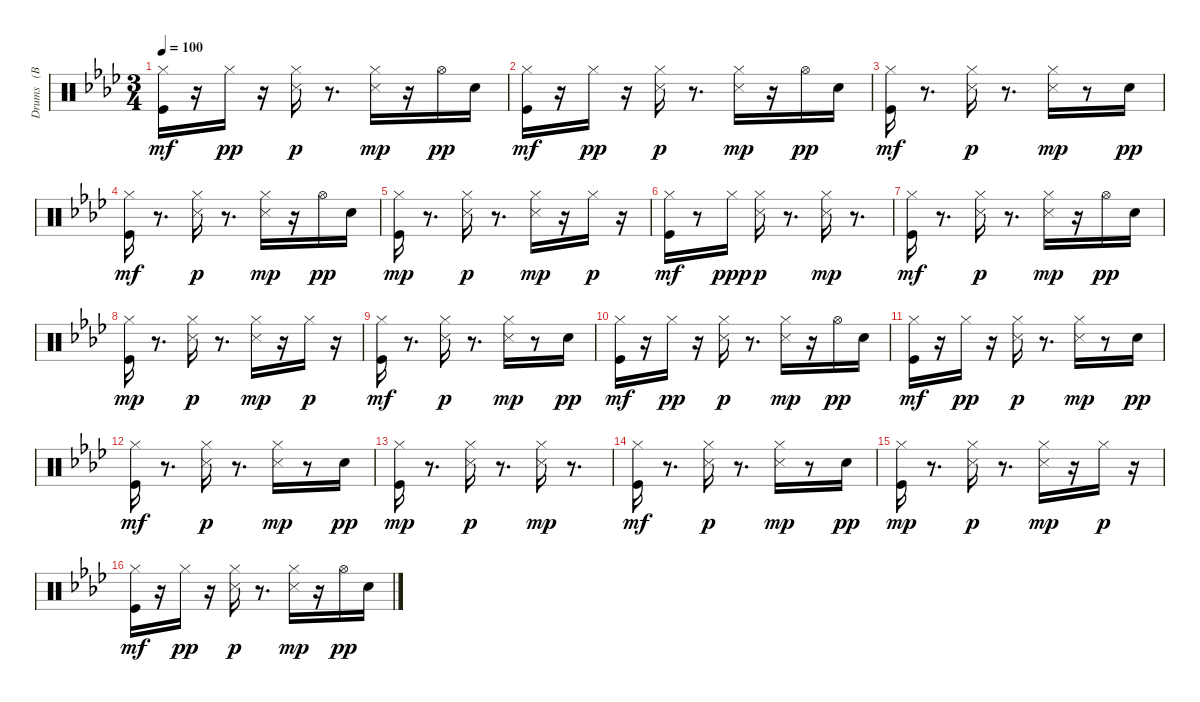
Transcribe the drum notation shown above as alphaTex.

\track ("Drums   (BB)" "Drums   (B") {instrument percussion}
\staff {score}
\articulation defaults
\ts (3 4)
\tempo 100
\clef neutral
\ks fminor
("Kick (hit)" "Hi-Hat (closed)").16{dy mf} r.16 "Hi-Hat (closed)".16{dy pp} r.16 ("Hi-Hat (closed)" "Snare (side stick) 3").16{dy p} r.8{d} ("Hi-Hat (closed)" "Snare (side stick) 3").16{dy mp} r.16 "Hi-Hat (open)".16{dy pp} "Snare (hit) 2".16 |
("Kick (hit)" "Hi-Hat (closed)").16{dy mf} r.16 "Hi-Hat (closed)".16{dy pp} r.16 ("Hi-Hat (closed)" "Snare (side stick) 3").16{dy p} r.8{d} ("Hi-Hat (closed)" "Snare (side stick) 3").16{dy mp} r.16 "Hi-Hat (open)".16{dy pp} "Snare (hit) 2".16 |
("Kick (hit)" "Hi-Hat (closed)").16{dy mf} r.8{d} ("Hi-Hat (closed)" "Snare (side stick) 3").16{dy p} r.8{d} ("Hi-Hat (closed)" "Snare (side stick) 3").16{dy mp} r.8 "Snare (hit) 2".16{dy pp} |
("Kick (hit)" "Hi-Hat (closed)").16{dy mf} r.8{d} ("Hi-Hat (closed)" "Snare (side stick) 3").16{dy p} r.8{d} ("Hi-Hat (closed)" "Snare (side stick) 3").16{dy mp} r.16 "Hi-Hat (open)".16{dy pp} "Snare (hit) 2".16 |
("Kick (hit)" "Hi-Hat (closed)").16{dy mp} r.8{d} ("Hi-Hat (closed)" "Snare (side stick) 3").16{dy p} r.8{d} ("Hi-Hat (closed)" "Snare (side stick) 3").16{dy mp} r.16 "Hi-Hat (closed)".16{dy p} r.16 |
("Kick (hit)" "Hi-Hat (closed)").16{dy mf} r.8 "Hi-Hat (closed)".16{dy ppp} ("Hi-Hat (closed)" "Snare (side stick) 3").16{dy p} r.8{d} ("Hi-Hat (closed)" "Snare (side stick) 3").16{dy mp} r.8{d} |
("Kick (hit)" "Hi-Hat (closed)").16{dy mf} r.8{d} ("Hi-Hat (closed)" "Snare (side stick) 3").16{dy p} r.8{d} ("Hi-Hat (closed)" "Snare (side stick) 3").16{dy mp} r.16 "Hi-Hat (open)".16{dy pp} "Snare (hit) 2".16 |
("Kick (hit)" "Hi-Hat (closed)").16{dy mp} r.8{d} ("Hi-Hat (closed)" "Snare (side stick) 3").16{dy p} r.8{d} ("Hi-Hat (closed)" "Snare (side stick) 3").16{dy mp} r.16 "Hi-Hat (closed)".16{dy p} r.16 |
("Kick (hit)" "Hi-Hat (closed)").16{dy mf} r.8{d} ("Hi-Hat (closed)" "Snare (side stick) 3").16{dy p} r.8{d} ("Hi-Hat (closed)" "Snare (side stick) 3").16{dy mp} r.8 "Snare (hit) 2".16{dy pp} |
("Kick (hit)" "Hi-Hat (closed)").16{dy mf} r.16 "Hi-Hat (closed)".16{dy pp} r.16 ("Hi-Hat (closed)" "Snare (side stick) 3").16{dy p} r.8{d} ("Hi-Hat (closed)" "Snare (side stick) 3").16{dy mp} r.16 "Hi-Hat (open)".16{dy pp} "Snare (hit) 2".16 |
("Kick (hit)" "Hi-Hat (closed)").16{dy mf} r.16 "Hi-Hat (closed)".16{dy pp} r.16 ("Hi-Hat (closed)" "Snare (side stick) 3").16{dy p} r.8{d} ("Hi-Hat (closed)" "Snare (side stick) 3").16{dy mp} r.8 "Snare (hit) 2".16{dy pp} |
("Kick (hit)" "Hi-Hat (closed)").16{dy mf} r.8{d} ("Hi-Hat (closed)" "Snare (side stick) 3").16{dy p} r.8{d} ("Hi-Hat (closed)" "Snare (side stick) 3").16{dy mp} r.8 "Snare (hit) 2".16{dy pp} |
("Kick (hit)" "Hi-Hat (closed)").16{dy mp} r.8{d} ("Hi-Hat (closed)" "Snare (side stick) 3").16{dy p} r.8{d} ("Hi-Hat (closed)" "Snare (side stick) 3").16{dy mp} r.8{d} |
("Kick (hit)" "Hi-Hat (closed)").16{dy mf} r.8{d} ("Hi-Hat (closed)" "Snare (side stick) 3").16{dy p} r.8{d} ("Hi-Hat (closed)" "Snare (side stick) 3").16{dy mp} r.8 "Snare (hit) 2".16{dy pp} |
("Kick (hit)" "Hi-Hat (closed)").16{dy mp} r.8{d} ("Hi-Hat (closed)" "Snare (side stick) 3").16{dy p} r.8{d} ("Hi-Hat (closed)" "Snare (side stick) 3").16{dy mp} r.16 "Hi-Hat (closed)".16{dy p} r.16 |
("Kick (hit)" "Hi-Hat (closed)").16{dy mf} r.16 "Hi-Hat (closed)".16{dy pp} r.16 ("Hi-Hat (closed)" "Snare (side stick) 3").16{dy p} r.8{d} ("Hi-Hat (closed)" "Snare (side stick) 3").16{dy mp} r.16 "Hi-Hat (open)".16{dy pp} "Snare (hit) 2".16
